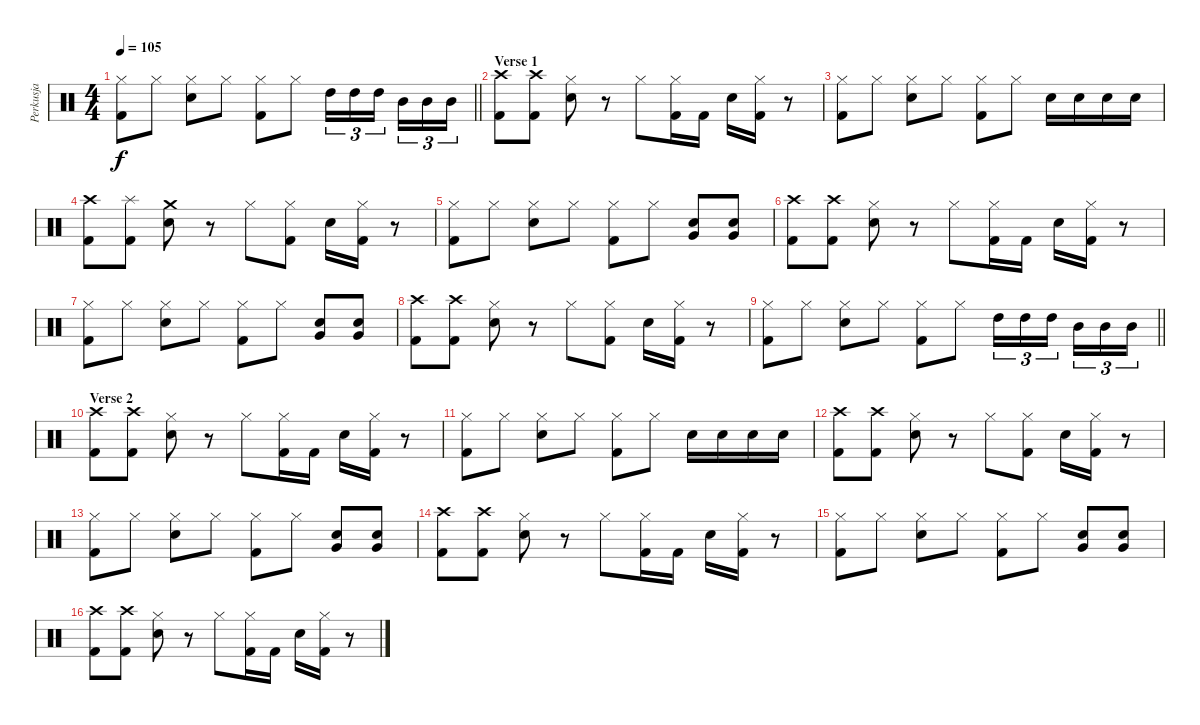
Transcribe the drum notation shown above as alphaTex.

\track ("Perkusja" "Perkusja") {instrument percussion}
\staff {score}
\articulation defaults
\ts (4 4)
\tempo 105
\clef neutral
\barLineRight lightlight
\ks c
("Hi-Hat (closed)" "Kick (hit) 2").8{dy f} "Hi-Hat (closed)".8 ("Hi-Hat (closed)" "Snare (hit) 2").8 "Hi-Hat (closed)".8 ("Hi-Hat (closed)" "Kick (hit) 2").8 "Hi-Hat (closed)".8 "High Tom (hit)".16{tu (3 2)} "High Tom (hit)".16{tu (3 2)} "High Tom (hit)".16{tu (3 2) beam splitsecondary} "Mid Tom (hit)".16{tu (3 2)} "Mid Tom (hit)".16{tu (3 2)} "Mid Tom (hit)".16{tu (3 2)} |
\section ("" "Verse 1")
("Kick (hit) 2" "Crash high (hit)").8 ("Kick (hit) 2" "Crash high (hit)").8 ("Hi-Hat (closed)" "Snare (hit) 2").8 r.8 "Hi-Hat (closed)".8 ("Kick (hit) 2" "Hi-Hat (closed)").16 "Kick (hit) 2".16 "Snare (hit) 2".16 ("Hi-Hat (closed)" "Kick (hit) 2").16 r.8 |
("Hi-Hat (closed)" "Kick (hit) 2").8 "Hi-Hat (closed)".8 ("Hi-Hat (closed)" "Snare (hit) 2").8 "Hi-Hat (closed)".8 ("Hi-Hat (closed)" "Kick (hit) 2").8 "Hi-Hat (closed)".8 "Snare (hit) 2".16 "Snare (hit) 2".16 "Snare (hit) 2".16 "Snare (hit) 2".16 |
("Kick (hit) 2" "Crash high (hit)").8 ("Kick (hit) 2" "Splash (hit)").8 ("Crash medium (hit)" "Snare (hit) 2").8 r.8 "Hi-Hat (closed)".8 ("Kick (hit) 2" "Hi-Hat (closed)").8 "Snare (hit) 2".16 ("Hi-Hat (closed)" "Kick (hit) 2").16 r.8 |
("Hi-Hat (closed)" "Kick (hit) 2").8 "Hi-Hat (closed)".8 ("Hi-Hat (closed)" "Snare (hit) 2").8 "Hi-Hat (closed)".8 ("Hi-Hat (closed)" "Kick (hit) 2").8 "Hi-Hat (closed)".8 ("Very Low Tom (hit)" "Snare (hit) 2").8 ("Very Low Tom (hit)" "Snare (hit) 2").8 |
("Kick (hit) 2" "Crash high (hit)").8 ("Kick (hit) 2" "Crash high (hit)").8 ("Hi-Hat (closed)" "Snare (hit) 2").8 r.8 "Hi-Hat (closed)".8 ("Kick (hit) 2" "Hi-Hat (closed)").16 "Kick (hit) 2".16 "Snare (hit) 2".16 ("Hi-Hat (closed)" "Kick (hit) 2").16 r.8 |
("Hi-Hat (closed)" "Kick (hit) 2").8 "Hi-Hat (closed)".8 ("Hi-Hat (closed)" "Snare (hit) 2").8 "Hi-Hat (closed)".8 ("Hi-Hat (closed)" "Kick (hit) 2").8 "Hi-Hat (closed)".8 ("Snare (hit) 2" "Very Low Tom (hit)").8 ("Snare (hit) 2" "Very Low Tom (hit)").8 |
("Kick (hit) 2" "Crash high (hit)").8 ("Kick (hit) 2" "Crash high (hit)").8 ("Hi-Hat (closed)" "Snare (hit) 2").8 r.8 "Hi-Hat (closed)".8 ("Kick (hit) 2" "Hi-Hat (closed)").8 "Snare (hit) 2".16 ("Hi-Hat (closed)" "Kick (hit) 2").16 r.8 |
\barLineRight lightlight
("Hi-Hat (closed)" "Kick (hit) 2").8 "Hi-Hat (closed)".8 ("Hi-Hat (closed)" "Snare (hit) 2").8 "Hi-Hat (closed)".8 ("Hi-Hat (closed)" "Kick (hit) 2").8 "Hi-Hat (closed)".8 "High Tom (hit)".16{tu (3 2)} "High Tom (hit)".16{tu (3 2)} "High Tom (hit)".16{tu (3 2) beam splitsecondary} "Mid Tom (hit)".16{tu (3 2)} "Mid Tom (hit)".16{tu (3 2)} "Mid Tom (hit)".16{tu (3 2)} |
\section ("" "Verse 2")
("Kick (hit) 2" "Crash high (hit)").8 ("Kick (hit) 2" "Crash high (hit)").8 ("Hi-Hat (closed)" "Snare (hit) 2").8 r.8 "Hi-Hat (closed)".8 ("Kick (hit) 2" "Hi-Hat (closed)").16 "Kick (hit) 2".16 "Snare (hit) 2".16 ("Hi-Hat (closed)" "Kick (hit) 2").16 r.8 |
("Hi-Hat (closed)" "Kick (hit) 2").8 "Hi-Hat (closed)".8 ("Hi-Hat (closed)" "Snare (hit) 2").8 "Hi-Hat (closed)".8 ("Hi-Hat (closed)" "Kick (hit) 2").8 "Hi-Hat (closed)".8 "Snare (hit) 2".16 "Snare (hit) 2".16 "Snare (hit) 2".16 "Snare (hit) 2".16 |
("Kick (hit) 2" "Crash high (hit)").8 ("Kick (hit) 2" "Crash high (hit)").8 ("Hi-Hat (closed)" "Snare (hit) 2").8 r.8 "Hi-Hat (closed)".8 ("Kick (hit) 2" "Hi-Hat (closed)").8 "Snare (hit) 2".16 ("Hi-Hat (closed)" "Kick (hit) 2").16 r.8 |
("Hi-Hat (closed)" "Kick (hit) 2").8 "Hi-Hat (closed)".8 ("Hi-Hat (closed)" "Snare (hit) 2").8 "Hi-Hat (closed)".8 ("Hi-Hat (closed)" "Kick (hit) 2").8 "Hi-Hat (closed)".8 ("Very Low Tom (hit)" "Snare (hit) 2").8 ("Very Low Tom (hit)" "Snare (hit) 2").8 |
("Kick (hit) 2" "Crash high (hit)").8 ("Kick (hit) 2" "Crash high (hit)").8 ("Hi-Hat (closed)" "Snare (hit) 2").8 r.8 "Hi-Hat (closed)".8 ("Kick (hit) 2" "Hi-Hat (closed)").16 "Kick (hit) 2".16 "Snare (hit) 2".16 ("Hi-Hat (closed)" "Kick (hit) 2").16 r.8 |
("Hi-Hat (closed)" "Kick (hit) 2").8 "Hi-Hat (closed)".8 ("Hi-Hat (closed)" "Snare (hit) 2").8 "Hi-Hat (closed)".8 ("Hi-Hat (closed)" "Kick (hit) 2").8 "Hi-Hat (closed)".8 ("Snare (hit) 2" "Very Low Tom (hit)").8 ("Snare (hit) 2" "Very Low Tom (hit)").8 |
("Kick (hit) 2" "Crash high (hit)").8 ("Kick (hit) 2" "Crash high (hit)").8 ("Hi-Hat (closed)" "Snare (hit) 2").8 r.8 "Hi-Hat (closed)".8 ("Kick (hit) 2" "Hi-Hat (closed)").16 "Kick (hit) 2".16 "Snare (hit) 2".16 ("Hi-Hat (closed)" "Kick (hit) 2").16 r.8
